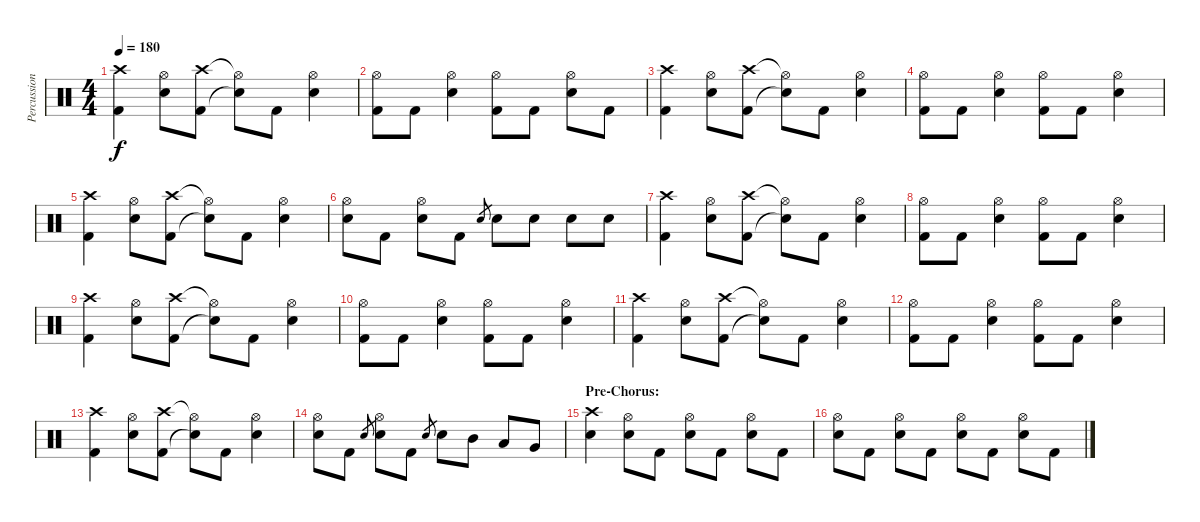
\track ("Percussion" "Percussion") {instrument percussion}
\staff {score}
\articulation defaults
\ts (4 4)
\tempo 180
\clef neutral
\ks c
("Crash high (hit)" "Kick (hit) 2").4{dy f} ("Hi-Hat (open)" "Snare (hit) 2").8 ("Crash high (hit)" "Kick (hit) 2").8 ("Hi-Hat (open)"{t} "Snare (hit)"{t}).8 "Kick (hit) 2".8 ("Hi-Hat (open)" "Snare (hit) 2").4 |
("Hi-Hat (open)" "Kick (hit) 2").8 "Kick (hit) 2".8 ("Hi-Hat (open)" "Snare (hit) 2").4 ("Hi-Hat (open)" "Kick (hit) 2").8 "Kick (hit) 2".8 ("Hi-Hat (open)" "Snare (hit) 2").8 "Kick (hit) 2".8 |
("Crash high (hit)" "Kick (hit) 2").4 ("Hi-Hat (open)" "Snare (hit) 2").8 ("Crash high (hit)" "Kick (hit) 2").8 ("Hi-Hat (open)"{t} "Snare (hit)"{t}).8 "Kick (hit) 2".8 ("Hi-Hat (open)" "Snare (hit) 2").4 |
("Hi-Hat (open)" "Kick (hit) 2").8 "Kick (hit) 2".8 ("Hi-Hat (open)" "Snare (hit) 2").4 ("Hi-Hat (open)" "Kick (hit) 2").8 "Kick (hit) 2".8 ("Hi-Hat (open)" "Snare (hit) 2").4 |
("Crash high (hit)" "Kick (hit) 2").4 ("Hi-Hat (open)" "Snare (hit) 2").8 ("Crash high (hit)" "Kick (hit) 2").8 ("Hi-Hat (open)"{t} "Snare (hit)"{t}).8 "Kick (hit) 2".8 ("Hi-Hat (open)" "Snare (hit) 2").4 |
("Hi-Hat (open)" "Snare (hit) 2").8 "Kick (hit) 2".8 ("Hi-Hat (open)" "Snare (hit) 2").8 "Kick (hit) 2".8 "Snare (hit) 2".8{gr} "Snare (hit) 2".8 "Snare (hit) 2".8 "Snare (hit) 2".8 "Snare (hit) 2".8 |
("Crash high (hit)" "Kick (hit) 2").4 ("Hi-Hat (open)" "Snare (hit) 2").8 ("Crash high (hit)" "Kick (hit) 2").8 ("Hi-Hat (open)"{t} "Snare (hit)"{t}).8 "Kick (hit) 2".8 ("Hi-Hat (open)" "Snare (hit) 2").4 |
("Hi-Hat (open)" "Kick (hit) 2").8 "Kick (hit) 2".8 ("Hi-Hat (open)" "Snare (hit) 2").4 ("Hi-Hat (open)" "Kick (hit) 2").8 "Kick (hit) 2".8 ("Hi-Hat (open)" "Snare (hit) 2").4 |
("Crash high (hit)" "Kick (hit) 2").4 ("Hi-Hat (open)" "Snare (hit) 2").8 ("Crash high (hit)" "Kick (hit) 2").8 ("Hi-Hat (open)"{t} "Snare (hit)"{t}).8 "Kick (hit) 2".8 ("Hi-Hat (open)" "Snare (hit) 2").4 |
("Hi-Hat (open)" "Kick (hit) 2").8 "Kick (hit) 2".8 ("Hi-Hat (open)" "Snare (hit) 2").4 ("Hi-Hat (open)" "Kick (hit) 2").8 "Kick (hit) 2".8 ("Hi-Hat (open)" "Snare (hit) 2").4 |
("Crash high (hit)" "Kick (hit) 2").4 ("Hi-Hat (open)" "Snare (hit) 2").8 ("Crash high (hit)" "Kick (hit) 2").8 ("Hi-Hat (open)"{t} "Snare (hit)"{t}).8 "Kick (hit) 2".8 ("Hi-Hat (open)" "Snare (hit) 2").4 |
("Hi-Hat (open)" "Kick (hit) 2").8 "Kick (hit) 2".8 ("Hi-Hat (open)" "Snare (hit) 2").4 ("Hi-Hat (open)" "Kick (hit) 2").8 "Kick (hit) 2".8 ("Hi-Hat (open)" "Snare (hit) 2").4 |
("Crash high (hit)" "Kick (hit) 2").4 ("Hi-Hat (open)" "Snare (hit) 2").8 ("Crash high (hit)" "Kick (hit) 2").8 ("Hi-Hat (open)"{t} "Snare (hit)"{t}).8 "Kick (hit) 2".8 ("Hi-Hat (open)" "Snare (hit) 2").4 |
("Hi-Hat (open)" "Snare (hit) 2").8 "Kick (hit) 2".8 "Snare (hit) 2".8{gr} ("Hi-Hat (open)" "Snare (hit) 2").8 "Kick (hit) 2".8 "Snare (hit) 2".8{gr} "Snare (hit) 2".8 "Mid Tom (hit)".8 "Low Tom (hit)".8 "Very Low Tom (hit)".8 |
\section ("" "Pre-Chorus:")
("Crash high (hit)" "Snare (hit) 2").4 ("Hi-Hat (open)" "Snare (hit) 2").8 "Kick (hit) 2".8 ("Hi-Hat (open)" "Snare (hit) 2").8 "Kick (hit) 2".8 ("Hi-Hat (open)" "Snare (hit) 2").8 "Kick (hit) 2".8 |
("Hi-Hat (open)" "Snare (hit) 2").8 "Kick (hit) 2".8 ("Hi-Hat (open)" "Snare (hit) 2").8 "Kick (hit) 2".8 ("Hi-Hat (open)" "Snare (hit) 2").8 "Kick (hit) 2".8 ("Hi-Hat (open)" "Snare (hit) 2").8 "Kick (hit) 2".8
